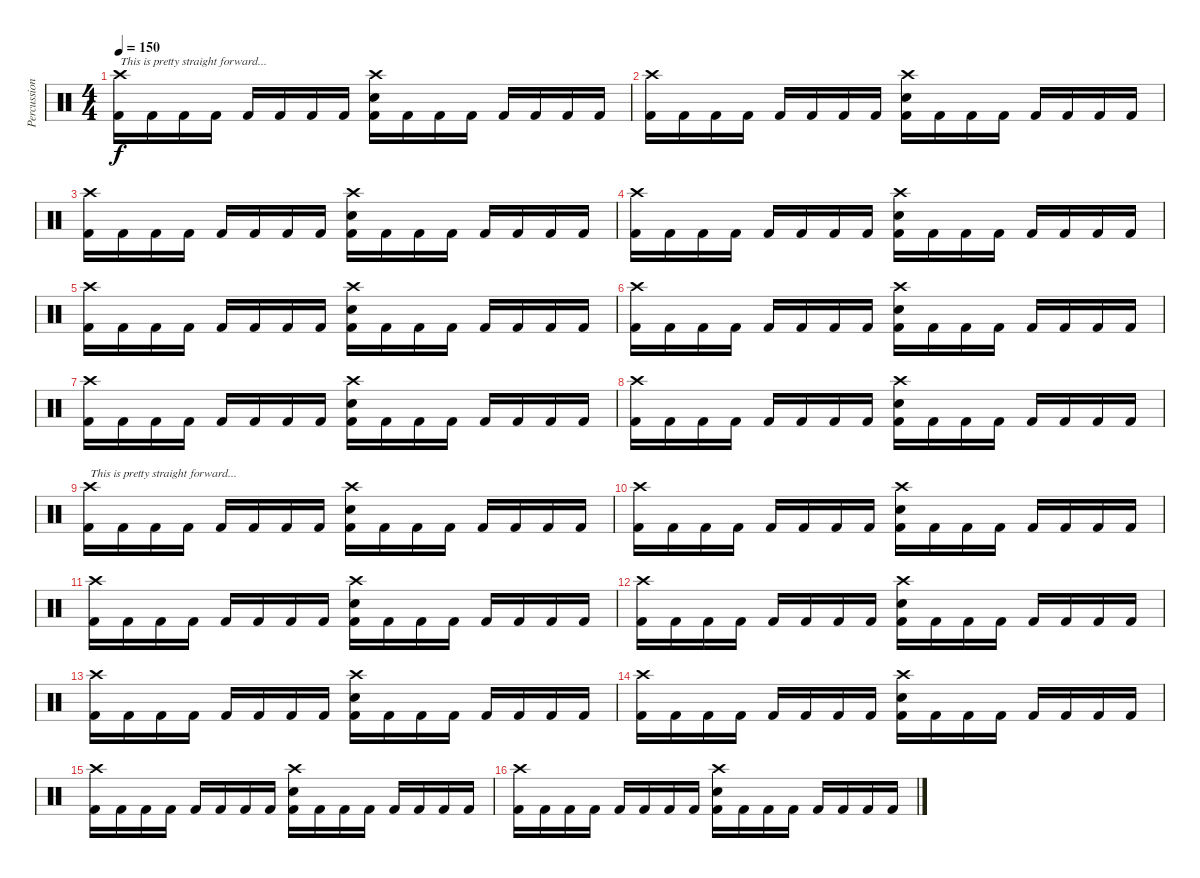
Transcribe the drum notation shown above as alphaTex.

\track ("Percussion" "Percussion") {instrument percussion}
\staff {score}
\articulation defaults
\ts (4 4)
\tempo 150
\clef neutral
\ks c
("Crash high (hit)" "Kick (hit) 2").16{txt "This is pretty straight forward..." dy f} "Kick (hit) 2".16 "Kick (hit) 2".16 "Kick (hit) 2".16 "Kick (hit) 2".16 "Kick (hit) 2".16 "Kick (hit) 2".16 "Kick (hit) 2".16 ("Crash high (hit)" "Electric Snare (hit)" "Kick (hit) 2").16 "Kick (hit) 2".16 "Kick (hit) 2".16 "Kick (hit) 2".16 "Kick (hit) 2".16 "Kick (hit) 2".16 "Kick (hit) 2".16 "Kick (hit) 2".16 |
("Crash high (hit)" "Kick (hit) 2").16 "Kick (hit) 2".16 "Kick (hit) 2".16 "Kick (hit) 2".16 "Kick (hit) 2".16 "Kick (hit) 2".16 "Kick (hit) 2".16 "Kick (hit) 2".16 ("Crash high (hit)" "Electric Snare (hit)" "Kick (hit) 2").16 "Kick (hit) 2".16 "Kick (hit) 2".16 "Kick (hit) 2".16 "Kick (hit) 2".16 "Kick (hit) 2".16 "Kick (hit) 2".16 "Kick (hit) 2".16 |
("Crash high (hit)" "Kick (hit) 2").16 "Kick (hit) 2".16 "Kick (hit) 2".16 "Kick (hit) 2".16 "Kick (hit) 2".16 "Kick (hit) 2".16 "Kick (hit) 2".16 "Kick (hit) 2".16 ("Crash high (hit)" "Electric Snare (hit)" "Kick (hit) 2").16 "Kick (hit) 2".16 "Kick (hit) 2".16 "Kick (hit) 2".16 "Kick (hit) 2".16 "Kick (hit) 2".16 "Kick (hit) 2".16 "Kick (hit) 2".16 |
("Crash high (hit)" "Kick (hit) 2").16 "Kick (hit) 2".16 "Kick (hit) 2".16 "Kick (hit) 2".16 "Kick (hit) 2".16 "Kick (hit) 2".16 "Kick (hit) 2".16 "Kick (hit) 2".16 ("Crash high (hit)" "Electric Snare (hit)" "Kick (hit) 2").16 "Kick (hit) 2".16 "Kick (hit) 2".16 "Kick (hit) 2".16 "Kick (hit) 2".16 "Kick (hit) 2".16 "Kick (hit) 2".16 "Kick (hit) 2".16 |
("Crash high (hit)" "Kick (hit) 2").16 "Kick (hit) 2".16 "Kick (hit) 2".16 "Kick (hit) 2".16 "Kick (hit) 2".16 "Kick (hit) 2".16 "Kick (hit) 2".16 "Kick (hit) 2".16 ("Crash high (hit)" "Electric Snare (hit)" "Kick (hit) 2").16 "Kick (hit) 2".16 "Kick (hit) 2".16 "Kick (hit) 2".16 "Kick (hit) 2".16 "Kick (hit) 2".16 "Kick (hit) 2".16 "Kick (hit) 2".16 |
("Crash high (hit)" "Kick (hit) 2").16 "Kick (hit) 2".16 "Kick (hit) 2".16 "Kick (hit) 2".16 "Kick (hit) 2".16 "Kick (hit) 2".16 "Kick (hit) 2".16 "Kick (hit) 2".16 ("Crash high (hit)" "Electric Snare (hit)" "Kick (hit) 2").16 "Kick (hit) 2".16 "Kick (hit) 2".16 "Kick (hit) 2".16 "Kick (hit) 2".16 "Kick (hit) 2".16 "Kick (hit) 2".16 "Kick (hit) 2".16 |
("Crash high (hit)" "Kick (hit) 2").16 "Kick (hit) 2".16 "Kick (hit) 2".16 "Kick (hit) 2".16 "Kick (hit) 2".16 "Kick (hit) 2".16 "Kick (hit) 2".16 "Kick (hit) 2".16 ("Crash high (hit)" "Electric Snare (hit)" "Kick (hit) 2").16 "Kick (hit) 2".16 "Kick (hit) 2".16 "Kick (hit) 2".16 "Kick (hit) 2".16 "Kick (hit) 2".16 "Kick (hit) 2".16 "Kick (hit) 2".16 |
("Crash high (hit)" "Kick (hit) 2").16 "Kick (hit) 2".16 "Kick (hit) 2".16 "Kick (hit) 2".16 "Kick (hit) 2".16 "Kick (hit) 2".16 "Kick (hit) 2".16 "Kick (hit) 2".16 ("Crash high (hit)" "Electric Snare (hit)" "Kick (hit) 2").16 "Kick (hit) 2".16 "Kick (hit) 2".16 "Kick (hit) 2".16 "Kick (hit) 2".16 "Kick (hit) 2".16 "Kick (hit) 2".16 "Kick (hit) 2".16 |
("Crash high (hit)" "Kick (hit) 2").16{txt "This is pretty straight forward..."} "Kick (hit) 2".16 "Kick (hit) 2".16 "Kick (hit) 2".16 "Kick (hit) 2".16 "Kick (hit) 2".16 "Kick (hit) 2".16 "Kick (hit) 2".16 ("Crash high (hit)" "Electric Snare (hit)" "Kick (hit) 2").16 "Kick (hit) 2".16 "Kick (hit) 2".16 "Kick (hit) 2".16 "Kick (hit) 2".16 "Kick (hit) 2".16 "Kick (hit) 2".16 "Kick (hit) 2".16 |
("Crash high (hit)" "Kick (hit) 2").16 "Kick (hit) 2".16 "Kick (hit) 2".16 "Kick (hit) 2".16 "Kick (hit) 2".16 "Kick (hit) 2".16 "Kick (hit) 2".16 "Kick (hit) 2".16 ("Crash high (hit)" "Electric Snare (hit)" "Kick (hit) 2").16 "Kick (hit) 2".16 "Kick (hit) 2".16 "Kick (hit) 2".16 "Kick (hit) 2".16 "Kick (hit) 2".16 "Kick (hit) 2".16 "Kick (hit) 2".16 |
("Crash high (hit)" "Kick (hit) 2").16 "Kick (hit) 2".16 "Kick (hit) 2".16 "Kick (hit) 2".16 "Kick (hit) 2".16 "Kick (hit) 2".16 "Kick (hit) 2".16 "Kick (hit) 2".16 ("Crash high (hit)" "Electric Snare (hit)" "Kick (hit) 2").16 "Kick (hit) 2".16 "Kick (hit) 2".16 "Kick (hit) 2".16 "Kick (hit) 2".16 "Kick (hit) 2".16 "Kick (hit) 2".16 "Kick (hit) 2".16 |
("Crash high (hit)" "Kick (hit) 2").16 "Kick (hit) 2".16 "Kick (hit) 2".16 "Kick (hit) 2".16 "Kick (hit) 2".16 "Kick (hit) 2".16 "Kick (hit) 2".16 "Kick (hit) 2".16 ("Crash high (hit)" "Electric Snare (hit)" "Kick (hit) 2").16 "Kick (hit) 2".16 "Kick (hit) 2".16 "Kick (hit) 2".16 "Kick (hit) 2".16 "Kick (hit) 2".16 "Kick (hit) 2".16 "Kick (hit) 2".16 |
("Crash high (hit)" "Kick (hit) 2").16 "Kick (hit) 2".16 "Kick (hit) 2".16 "Kick (hit) 2".16 "Kick (hit) 2".16 "Kick (hit) 2".16 "Kick (hit) 2".16 "Kick (hit) 2".16 ("Crash high (hit)" "Electric Snare (hit)" "Kick (hit) 2").16 "Kick (hit) 2".16 "Kick (hit) 2".16 "Kick (hit) 2".16 "Kick (hit) 2".16 "Kick (hit) 2".16 "Kick (hit) 2".16 "Kick (hit) 2".16 |
("Crash high (hit)" "Kick (hit) 2").16 "Kick (hit) 2".16 "Kick (hit) 2".16 "Kick (hit) 2".16 "Kick (hit) 2".16 "Kick (hit) 2".16 "Kick (hit) 2".16 "Kick (hit) 2".16 ("Crash high (hit)" "Electric Snare (hit)" "Kick (hit) 2").16 "Kick (hit) 2".16 "Kick (hit) 2".16 "Kick (hit) 2".16 "Kick (hit) 2".16 "Kick (hit) 2".16 "Kick (hit) 2".16 "Kick (hit) 2".16 |
("Crash high (hit)" "Kick (hit) 2").16 "Kick (hit) 2".16 "Kick (hit) 2".16 "Kick (hit) 2".16 "Kick (hit) 2".16 "Kick (hit) 2".16 "Kick (hit) 2".16 "Kick (hit) 2".16 ("Crash high (hit)" "Electric Snare (hit)" "Kick (hit) 2").16 "Kick (hit) 2".16 "Kick (hit) 2".16 "Kick (hit) 2".16 "Kick (hit) 2".16 "Kick (hit) 2".16 "Kick (hit) 2".16 "Kick (hit) 2".16 |
("Crash high (hit)" "Kick (hit) 2").16 "Kick (hit) 2".16 "Kick (hit) 2".16 "Kick (hit) 2".16 "Kick (hit) 2".16 "Kick (hit) 2".16 "Kick (hit) 2".16 "Kick (hit) 2".16 ("Crash high (hit)" "Electric Snare (hit)" "Kick (hit) 2").16 "Kick (hit) 2".16 "Kick (hit) 2".16 "Kick (hit) 2".16 "Kick (hit) 2".16 "Kick (hit) 2".16 "Kick (hit) 2".16 "Kick (hit) 2".16
